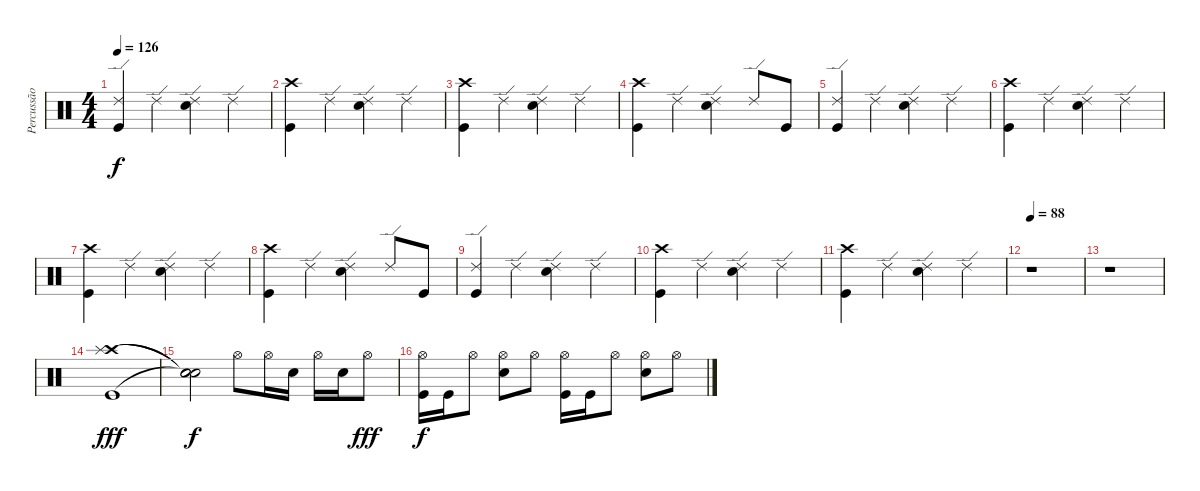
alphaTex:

\track ("Percussão" "Percussão") {instrument percussion}
\staff {score}
\articulation defaults
\ts (4 4)
\tempo 126
\clef neutral
\ks c
("Ride (edge) 2" "Kick (hit)").4{dy f} "Ride (edge) 2".4 ("Ride (edge) 2" "Electric Snare (hit)").4 "Ride (edge) 2".4 |
("Crash high (hit)" "Kick (hit)").4 "Ride (edge) 2".4 ("Ride (edge) 2" "Electric Snare (hit)").4 "Ride (edge) 2".4 |
("Crash high (hit)" "Kick (hit)").4 "Ride (edge) 2".4 ("Ride (edge) 2" "Electric Snare (hit)").4 "Ride (edge) 2".4 |
("Crash high (hit)" "Kick (hit)").4 "Ride (edge) 2".4 ("Ride (edge) 2" "Electric Snare (hit)").4 "Ride (edge) 2".8 "Kick (hit)".8 |
("Ride (edge) 2" "Kick (hit)").4 "Ride (edge) 2".4 ("Ride (edge) 2" "Electric Snare (hit)").4 "Ride (edge) 2".4 |
("Crash high (hit)" "Kick (hit)").4 "Ride (edge) 2".4 ("Ride (edge) 2" "Electric Snare (hit)").4 "Ride (edge) 2".4 |
("Crash high (hit)" "Kick (hit)").4 "Ride (edge) 2".4 ("Ride (edge) 2" "Electric Snare (hit)").4 "Ride (edge) 2".4 |
("Crash high (hit)" "Kick (hit)").4 "Ride (edge) 2".4 ("Ride (edge) 2" "Electric Snare (hit)").4 "Ride (edge) 2".8 "Kick (hit)".8 |
("Ride (edge) 2" "Kick (hit)").4 "Ride (edge) 2".4 ("Ride (edge) 2" "Electric Snare (hit)").4 "Ride (edge) 2".4 |
("Crash high (hit)" "Kick (hit)").4 "Ride (edge) 2".4 ("Ride (edge) 2" "Electric Snare (hit)").4 "Ride (edge) 2".4 |
("Crash high (hit)" "Kick (hit)").4 "Ride (edge) 2".4 ("Ride (edge) 2" "Electric Snare (hit)").4 "Ride (edge) 2".4 |
\tempo 88
r.1 |
r.1 |
("Crash high (hit)" "Splash (hit)" "Kick (hit)").1{dy fff} |
("Snare (hit)"{t} "Snare (hit)"{t} "Snare (hit)"{t}).2{dy f} "Hi-Hat (open)".8 "Hi-Hat (open)".16 "Electric Snare (hit)".16 "Hi-Hat (open)".16 "Electric Snare (hit)".16 "Hi-Hat (open)".8{dy fff} |
("Hi-Hat (open)" "Kick (hit)").16{dy f} "Kick (hit)".16 "Hi-Hat (open)".8 ("Hi-Hat (open)" "Electric Snare (hit)").8 "Hi-Hat (open)".8 ("Hi-Hat (open)" "Kick (hit)").16 "Kick (hit)".16 "Hi-Hat (open)".8 ("Hi-Hat (open)" "Electric Snare (hit)").8 "Hi-Hat (open)".8
